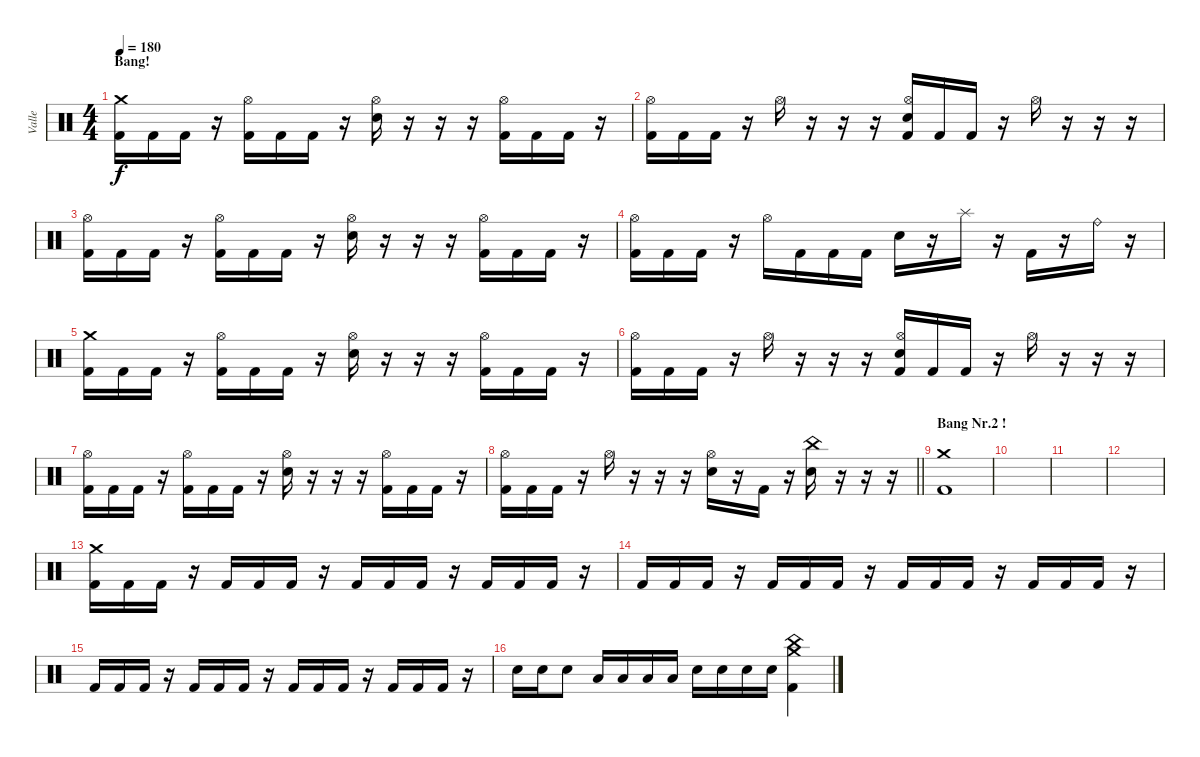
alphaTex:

\track ("Valle" "Valle") {instrument percussion}
\staff {score}
\articulation defaults
\ts (4 4)
\section ("" "Bang!")
\tempo 180
\clef neutral
\ks c
("Crash medium (hit)" "Kick (hit) 2").16{dy f} "Kick (hit) 2".16 "Kick (hit) 2".16 r.16 ("Hi-Hat (open)" "Kick (hit) 2").16 "Kick (hit) 2".16 "Kick (hit) 2".16 r.16 ("Hi-Hat (open)" "Snare (hit) 2").16 r.16 r.16 r.16 ("Hi-Hat (open)" "Kick (hit) 2").16 "Kick (hit) 2".16 "Kick (hit) 2".16 r.16 |
("Hi-Hat (open)" "Kick (hit) 2").16 "Kick (hit) 2".16 "Kick (hit) 2".16 r.16 "Hi-Hat (open)".16 r.16 r.16 r.16 ("Hi-Hat (open)" "Snare (hit) 2" "Kick (hit) 2").16 "Kick (hit) 2".16 "Kick (hit) 2".16 r.16 "Hi-Hat (open)".16 r.16 r.16 r.16 |
("Hi-Hat (open)" "Kick (hit) 2").16 "Kick (hit) 2".16 "Kick (hit) 2".16 r.16 ("Hi-Hat (open)" "Kick (hit) 2").16 "Kick (hit) 2".16 "Kick (hit) 2".16 r.16 ("Hi-Hat (open)" "Snare (hit) 2").16 r.16 r.16 r.16 ("Hi-Hat (open)" "Kick (hit) 2").16 "Kick (hit) 2".16 "Kick (hit) 2".16 r.16 |
("Hi-Hat (open)" "Kick (hit) 2").16 "Kick (hit) 2".16 "Kick (hit) 2".16 r.16 "Hi-Hat (open)".16 "Kick (hit) 2".16 "Kick (hit) 2".16 "Kick (hit) 2".16 "Snare (hit) 2".16 r.16 "Splash (hit)".16 r.16 "Kick (hit) 2".16 r.16 "Ride (bell)".16 r.16 |
("Crash medium (hit)" "Kick (hit) 2").16 "Kick (hit) 2".16 "Kick (hit) 2".16 r.16 ("Hi-Hat (open)" "Kick (hit) 2").16 "Kick (hit) 2".16 "Kick (hit) 2".16 r.16 ("Hi-Hat (open)" "Snare (hit) 2").16 r.16 r.16 r.16 ("Hi-Hat (open)" "Kick (hit) 2").16 "Kick (hit) 2".16 "Kick (hit) 2".16 r.16 |
("Hi-Hat (open)" "Kick (hit) 2").16 "Kick (hit) 2".16 "Kick (hit) 2".16 r.16 "Hi-Hat (open)".16 r.16 r.16 r.16 ("Hi-Hat (open)" "Snare (hit) 2" "Kick (hit) 2").16 "Kick (hit) 2".16 "Kick (hit) 2".16 r.16 "Hi-Hat (open)".16 r.16 r.16 r.16 |
("Hi-Hat (open)" "Kick (hit) 2").16 "Kick (hit) 2".16 "Kick (hit) 2".16 r.16 ("Hi-Hat (open)" "Kick (hit) 2").16 "Kick (hit) 2".16 "Kick (hit) 2".16 r.16 ("Hi-Hat (open)" "Snare (hit) 2").16 r.16 r.16 r.16 ("Hi-Hat (open)" "Kick (hit) 2").16 "Kick (hit) 2".16 "Kick (hit) 2".16 r.16 |
\barLineRight lightlight
("Hi-Hat (open)" "Kick (hit) 2").16 "Kick (hit) 2".16 "Kick (hit) 2".16 r.16 "Hi-Hat (open)".16 r.16 r.16 r.16 ("Hi-Hat (open)" "Snare (hit) 2").16 r.16 "Kick (hit) 2".16 r.16 ("China (hit)" "Snare (hit) 2").16 r.16 r.16 r.16 |
\section ("" "Bang Nr.2 !")
("Crash medium (hit)" "Kick (hit) 2").1 |
|
|
|
("Crash medium (hit)" "Kick (hit) 2").16 "Kick (hit) 2".16 "Kick (hit) 2".16 r.16 "Kick (hit) 2".16 "Kick (hit) 2".16 "Kick (hit) 2".16 r.16 "Kick (hit) 2".16 "Kick (hit) 2".16 "Kick (hit) 2".16 r.16 "Kick (hit) 2".16 "Kick (hit) 2".16 "Kick (hit) 2".16 r.16 |
"Kick (hit) 2".16 "Kick (hit) 2".16 "Kick (hit) 2".16 r.16 "Kick (hit) 2".16 "Kick (hit) 2".16 "Kick (hit) 2".16 r.16 "Kick (hit) 2".16 "Kick (hit) 2".16 "Kick (hit) 2".16 r.16 "Kick (hit) 2".16 "Kick (hit) 2".16 "Kick (hit) 2".16 r.16 |
"Kick (hit) 2".16 "Kick (hit) 2".16 "Kick (hit) 2".16 r.16 "Kick (hit) 2".16 "Kick (hit) 2".16 "Kick (hit) 2".16 r.16 "Kick (hit) 2".16 "Kick (hit) 2".16 "Kick (hit) 2".16 r.16 "Kick (hit) 2".16 "Kick (hit) 2".16 "Kick (hit) 2".16 r.16 |
"Snare (hit) 2".16 "Snare (hit) 2".16 "Snare (hit) 2".8 "Low Tom (hit)".16 "Low Tom (hit)".16 "Low Tom (hit)".16 "Low Tom (hit)".16 "Snare (hit) 2".16 "Snare (hit) 2".16 "Snare (hit) 2".16 "Snare (hit) 2".16 ("Crash medium (hit)" "China (hit)" "Kick (hit) 2").4
